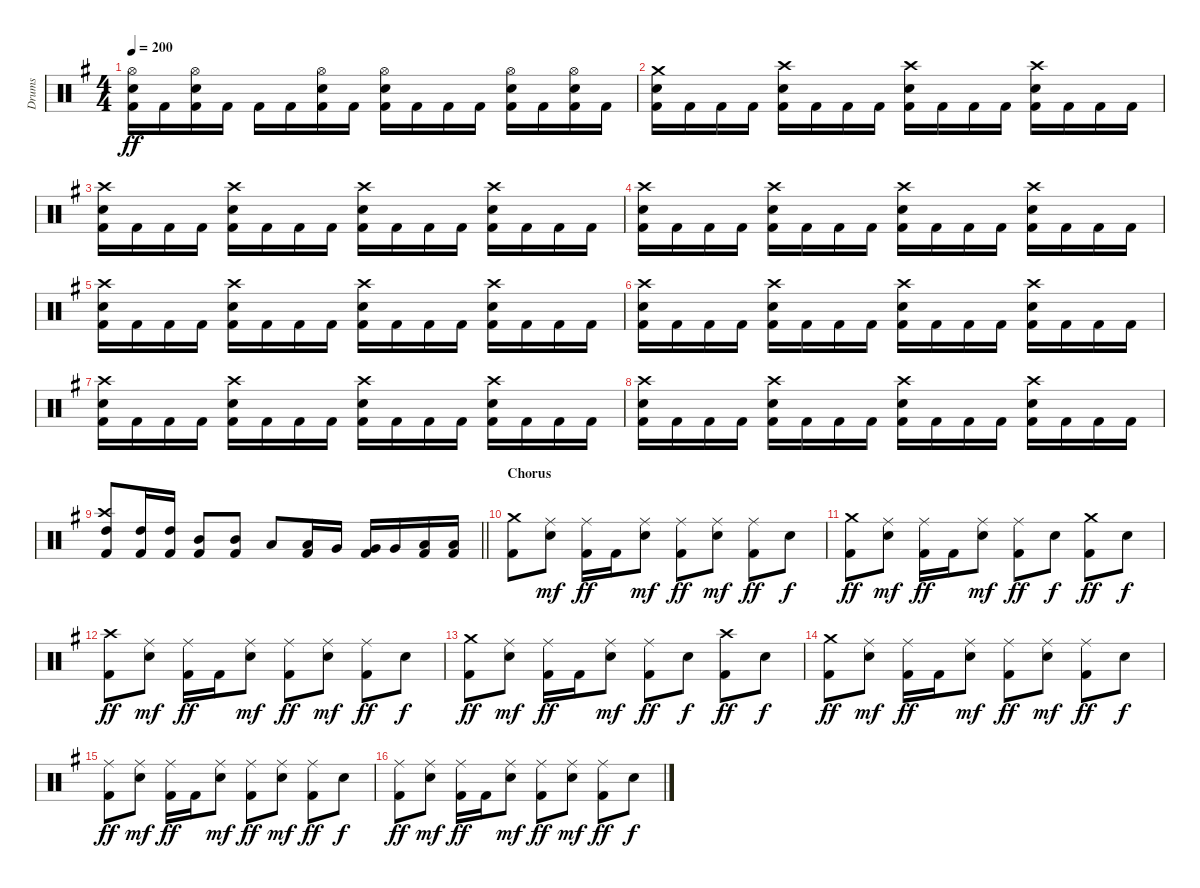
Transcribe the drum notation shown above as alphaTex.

\track ("Drums" "Drums") {instrument percussion}
\staff {score}
\articulation defaults
\ts (4 4)
\tempo 200
\clef neutral
\ks g
("Hi-Hat (open)" "Snare (hit) 2" "Kick (hit) 2").16{dy ff} "Kick (hit) 2".16 ("Hi-Hat (open)" "Snare (hit) 2" "Kick (hit) 2").16 "Kick (hit) 2".16 "Kick (hit) 2".16 "Kick (hit) 2".16 ("Hi-Hat (open)" "Snare (hit) 2" "Kick (hit) 2").16 "Kick (hit) 2".16 ("Hi-Hat (open)" "Snare (hit) 2" "Kick (hit) 2").16 "Kick (hit) 2".16 "Kick (hit) 2".16 "Kick (hit) 2".16 ("Hi-Hat (open)" "Snare (hit) 2" "Kick (hit) 2").16 "Kick (hit) 2".16 ("Hi-Hat (open)" "Snare (hit) 2" "Kick (hit) 2").16 "Kick (hit) 2".16 |
("Crash medium (hit)" "Snare (hit) 2" "Kick (hit) 2").16 "Kick (hit) 2".16 "Kick (hit) 2".16 "Kick (hit) 2".16 ("Crash high (hit)" "Snare (hit) 2" "Kick (hit) 2").16 "Kick (hit) 2".16 "Kick (hit) 2".16 "Kick (hit) 2".16 ("Crash high (hit)" "Snare (hit) 2" "Kick (hit) 2").16 "Kick (hit) 2".16 "Kick (hit) 2".16 "Kick (hit) 2".16 ("Crash high (hit)" "Snare (hit) 2" "Kick (hit) 2").16 "Kick (hit) 2".16 "Kick (hit) 2".16 "Kick (hit) 2".16 |
("Crash high (hit)" "Snare (hit) 2" "Kick (hit) 2").16 "Kick (hit) 2".16 "Kick (hit) 2".16 "Kick (hit) 2".16 ("Crash high (hit)" "Snare (hit) 2" "Kick (hit) 2").16 "Kick (hit) 2".16 "Kick (hit) 2".16 "Kick (hit) 2".16 ("Crash high (hit)" "Snare (hit) 2" "Kick (hit) 2").16 "Kick (hit) 2".16 "Kick (hit) 2".16 "Kick (hit) 2".16 ("Crash high (hit)" "Snare (hit) 2" "Kick (hit) 2").16 "Kick (hit) 2".16 "Kick (hit) 2".16 "Kick (hit) 2".16 |
("Crash high (hit)" "Snare (hit) 2" "Kick (hit) 2").16 "Kick (hit) 2".16 "Kick (hit) 2".16 "Kick (hit) 2".16 ("Crash high (hit)" "Snare (hit) 2" "Kick (hit) 2").16 "Kick (hit) 2".16 "Kick (hit) 2".16 "Kick (hit) 2".16 ("Crash high (hit)" "Snare (hit) 2" "Kick (hit) 2").16 "Kick (hit) 2".16 "Kick (hit) 2".16 "Kick (hit) 2".16 ("Crash high (hit)" "Snare (hit) 2" "Kick (hit) 2").16 "Kick (hit) 2".16 "Kick (hit) 2".16 "Kick (hit) 2".16 |
("Crash high (hit)" "Snare (hit) 2" "Kick (hit) 2").16 "Kick (hit) 2".16 "Kick (hit) 2".16 "Kick (hit) 2".16 ("Crash high (hit)" "Snare (hit) 2" "Kick (hit) 2").16 "Kick (hit) 2".16 "Kick (hit) 2".16 "Kick (hit) 2".16 ("Crash high (hit)" "Snare (hit) 2" "Kick (hit) 2").16 "Kick (hit) 2".16 "Kick (hit) 2".16 "Kick (hit) 2".16 ("Crash high (hit)" "Snare (hit) 2" "Kick (hit) 2").16 "Kick (hit) 2".16 "Kick (hit) 2".16 "Kick (hit) 2".16 |
("Crash high (hit)" "Snare (hit) 2" "Kick (hit) 2").16 "Kick (hit) 2".16 "Kick (hit) 2".16 "Kick (hit) 2".16 ("Crash high (hit)" "Snare (hit) 2" "Kick (hit) 2").16 "Kick (hit) 2".16 "Kick (hit) 2".16 "Kick (hit) 2".16 ("Crash high (hit)" "Snare (hit) 2" "Kick (hit) 2").16 "Kick (hit) 2".16 "Kick (hit) 2".16 "Kick (hit) 2".16 ("Crash high (hit)" "Snare (hit) 2" "Kick (hit) 2").16 "Kick (hit) 2".16 "Kick (hit) 2".16 "Kick (hit) 2".16 |
("Crash high (hit)" "Snare (hit) 2" "Kick (hit) 2").16 "Kick (hit) 2".16 "Kick (hit) 2".16 "Kick (hit) 2".16 ("Crash high (hit)" "Snare (hit) 2" "Kick (hit) 2").16 "Kick (hit) 2".16 "Kick (hit) 2".16 "Kick (hit) 2".16 ("Crash high (hit)" "Snare (hit) 2" "Kick (hit) 2").16 "Kick (hit) 2".16 "Kick (hit) 2".16 "Kick (hit) 2".16 ("Crash high (hit)" "Snare (hit) 2" "Kick (hit) 2").16 "Kick (hit) 2".16 "Kick (hit) 2".16 "Kick (hit) 2".16 |
("Crash high (hit)" "Snare (hit) 2" "Kick (hit) 2").16 "Kick (hit) 2".16 "Kick (hit) 2".16 "Kick (hit) 2".16 ("Crash high (hit)" "Snare (hit) 2" "Kick (hit) 2").16 "Kick (hit) 2".16 "Kick (hit) 2".16 "Kick (hit) 2".16 ("Crash high (hit)" "Snare (hit) 2" "Kick (hit) 2").16 "Kick (hit) 2".16 "Kick (hit) 2".16 "Kick (hit) 2".16 ("Crash high (hit)" "Snare (hit) 2" "Kick (hit) 2").16 "Kick (hit) 2".16 "Kick (hit) 2".16 "Kick (hit) 2".16 |
\barLineRight lightlight
("Crash high (hit)" "High Tom (hit)" "Kick (hit) 2").8 ("High Tom (hit)" "Kick (hit) 2").16 ("High Tom (hit)" "Kick (hit) 2").16 ("Mid Tom (hit)" "Kick (hit) 2").8 ("Mid Tom (hit)" "Kick (hit) 2").8 "Low Tom (hit)".8 ("Low Tom (hit)" "Kick (hit) 2").16 "Very Low Tom (hit)".16 ("Very Low Tom (hit)" "Kick (hit) 2").16 "Very Low Tom (hit)".16 ("Low Floor Tom (hit)" "Kick (hit) 2").16 ("Low Floor Tom (hit)" "Kick (hit) 2").16 |
\section ("" "Chorus")
("Crash medium (hit)" "Kick (hit) 2").8 ("Ride (middle)" "Snare (hit) 2").8{dy mf} ("Ride (middle)" "Kick (hit) 2").16{dy ff} "Kick (hit) 2".16 ("Ride (middle)" "Snare (hit) 2").8{dy mf} ("Ride (middle)" "Kick (hit) 2").8{dy ff} ("Ride (middle)" "Snare (hit) 2").8{dy mf} ("Ride (middle)" "Kick (hit) 2").8{dy ff} "Snare (hit) 2".8{dy f} |
("Crash medium (hit)" "Kick (hit) 2").8{dy ff} ("Ride (middle)" "Snare (hit) 2").8{dy mf} ("Ride (middle)" "Kick (hit) 2").16{dy ff} "Kick (hit) 2".16 ("Ride (middle)" "Snare (hit) 2").8{dy mf} ("Ride (middle)" "Kick (hit) 2").8{dy ff} "Snare (hit) 2".8{dy f} ("Crash medium (hit)" "Kick (hit) 2").8{dy ff} "Snare (hit) 2".8{dy f} |
("Crash high (hit)" "Kick (hit) 2").8{dy ff} ("Ride (middle)" "Snare (hit) 2").8{dy mf} ("Ride (middle)" "Kick (hit) 2").16{dy ff} "Kick (hit) 2".16 ("Ride (middle)" "Snare (hit) 2").8{dy mf} ("Ride (middle)" "Kick (hit) 2").8{dy ff} ("Ride (middle)" "Snare (hit) 2").8{dy mf} ("Ride (middle)" "Kick (hit) 2").8{dy ff} "Snare (hit) 2".8{dy f} |
("Crash medium (hit)" "Kick (hit) 2").8{dy ff} ("Ride (middle)" "Snare (hit) 2").8{dy mf} ("Ride (middle)" "Kick (hit) 2").16{dy ff} "Kick (hit) 2".16 ("Ride (middle)" "Snare (hit) 2").8{dy mf} ("Ride (middle)" "Kick (hit) 2").8{dy ff} "Snare (hit) 2".8{dy f} ("Crash high (hit)" "Kick (hit) 2").8{dy ff} "Snare (hit) 2".8{dy f} |
("Crash medium (hit)" "Kick (hit) 2").8{dy ff} ("Ride (middle)" "Snare (hit) 2").8{dy mf} ("Ride (middle)" "Kick (hit) 2").16{dy ff} "Kick (hit) 2".16 ("Ride (middle)" "Snare (hit) 2").8{dy mf} ("Ride (middle)" "Kick (hit) 2").8{dy ff} ("Ride (middle)" "Snare (hit) 2").8{dy mf} ("Ride (middle)" "Kick (hit) 2").8{dy ff} "Snare (hit) 2".8{dy f} |
("Ride (middle)" "Kick (hit) 2").8{dy ff} ("Ride (middle)" "Snare (hit) 2").8{dy mf} ("Ride (middle)" "Kick (hit) 2").16{dy ff} "Kick (hit) 2".16 ("Ride (middle)" "Snare (hit) 2").8{dy mf} ("Ride (middle)" "Kick (hit) 2").8{dy ff} ("Ride (middle)" "Snare (hit) 2").8{dy mf} ("Ride (middle)" "Kick (hit) 2").8{dy ff} "Snare (hit) 2".8{dy f} |
("Ride (middle)" "Kick (hit) 2").8{dy ff} ("Ride (middle)" "Snare (hit) 2").8{dy mf} ("Ride (middle)" "Kick (hit) 2").16{dy ff} "Kick (hit) 2".16 ("Ride (middle)" "Snare (hit) 2").8{dy mf} ("Ride (middle)" "Kick (hit) 2").8{dy ff} ("Ride (middle)" "Snare (hit) 2").8{dy mf} ("Ride (middle)" "Kick (hit) 2").8{dy ff} "Snare (hit) 2".8{dy f}
